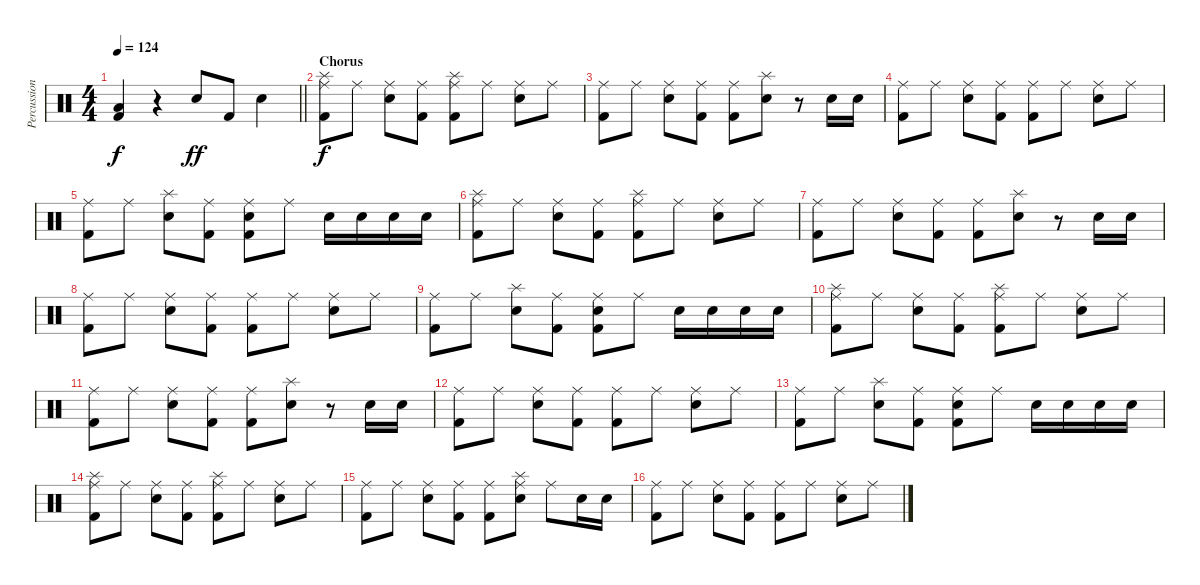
\track ("Percussioni" "Percussion") {instrument percussion}
\staff {score}
\articulation defaults
\ts (4 4)
\tempo 124
\clef neutral
\barLineRight lightlight
\ks c
("Low Floor Tom (hit)" "Kick (hit) 2").4{dy f} r.4 "Snare (hit) 2".8{dy ff} "Kick (hit) 2".8 "Snare (hit) 2".4 |
\section ("" "Chorus")
("Ride (middle)" "Splash (hit)" "Kick (hit) 2").8{dy f} "Ride (middle)".8 ("Ride (middle)" "Snare (hit) 2").8 ("Ride (middle)" "Kick (hit) 2").8 ("Ride (middle)" "Splash (hit)" "Kick (hit) 2").8 "Ride (middle)".8 ("Ride (middle)" "Snare (hit) 2").8 "Ride (middle)".8 |
("Ride (middle)" "Kick (hit) 2").8 "Ride (middle)".8 ("Ride (middle)" "Snare (hit) 2").8 ("Ride (middle)" "Kick (hit) 2").8 ("Ride (middle)" "Kick (hit) 2").8 ("Splash (hit)" "Snare (hit) 2").8 r.8 "Snare (hit) 2".16 "Snare (hit) 2".16 |
("Ride (middle)" "Kick (hit) 2").8 "Ride (middle)".8 ("Ride (middle)" "Snare (hit) 2").8 ("Ride (middle)" "Kick (hit) 2").8 ("Ride (middle)" "Kick (hit) 2").8 "Ride (middle)".8 ("Ride (middle)" "Snare (hit) 2").8 "Ride (middle)".8 |
("Ride (middle)" "Kick (hit) 2").8 "Ride (middle)".8 ("Splash (hit)" "Snare (hit) 2").8 ("Ride (middle)" "Kick (hit) 2").8 ("Ride (middle)" "Snare (hit) 2" "Kick (hit) 2").8 "Ride (middle)".8 "Snare (hit) 2".16 "Snare (hit) 2".16 "Snare (hit) 2".16 "Snare (hit) 2".16 |
("Ride (middle)" "Splash (hit)" "Kick (hit) 2").8 "Ride (middle)".8 ("Ride (middle)" "Snare (hit) 2").8 ("Ride (middle)" "Kick (hit) 2").8 ("Ride (middle)" "Splash (hit)" "Kick (hit) 2").8 "Ride (middle)".8 ("Ride (middle)" "Snare (hit) 2").8 "Ride (middle)".8 |
("Ride (middle)" "Kick (hit) 2").8 "Ride (middle)".8 ("Ride (middle)" "Snare (hit) 2").8 ("Ride (middle)" "Kick (hit) 2").8 ("Ride (middle)" "Kick (hit) 2").8 ("Splash (hit)" "Snare (hit) 2").8 r.8 "Snare (hit) 2".16 "Snare (hit) 2".16 |
("Ride (middle)" "Kick (hit) 2").8 "Ride (middle)".8 ("Ride (middle)" "Snare (hit) 2").8 ("Ride (middle)" "Kick (hit) 2").8 ("Ride (middle)" "Kick (hit) 2").8 "Ride (middle)".8 ("Ride (middle)" "Snare (hit) 2").8 "Ride (middle)".8 |
("Ride (middle)" "Kick (hit) 2").8 "Ride (middle)".8 ("Splash (hit)" "Snare (hit) 2").8 ("Ride (middle)" "Kick (hit) 2").8 ("Ride (middle)" "Snare (hit) 2" "Kick (hit) 2").8 "Ride (middle)".8 "Snare (hit) 2".16 "Snare (hit) 2".16 "Snare (hit) 2".16 "Snare (hit) 2".16 |
("Ride (middle)" "Splash (hit)" "Kick (hit) 2").8 "Ride (middle)".8 ("Ride (middle)" "Snare (hit) 2").8 ("Ride (middle)" "Kick (hit) 2").8 ("Ride (middle)" "Splash (hit)" "Kick (hit) 2").8 "Ride (middle)".8 ("Ride (middle)" "Snare (hit) 2").8 "Ride (middle)".8 |
("Ride (middle)" "Kick (hit) 2").8 "Ride (middle)".8 ("Ride (middle)" "Snare (hit) 2").8 ("Ride (middle)" "Kick (hit) 2").8 ("Ride (middle)" "Kick (hit) 2").8 ("Splash (hit)" "Snare (hit) 2").8 r.8 "Snare (hit) 2".16 "Snare (hit) 2".16 |
("Ride (middle)" "Kick (hit) 2").8 "Ride (middle)".8 ("Ride (middle)" "Snare (hit) 2").8 ("Ride (middle)" "Kick (hit) 2").8 ("Ride (middle)" "Kick (hit) 2").8 "Ride (middle)".8 ("Ride (middle)" "Snare (hit) 2").8 "Ride (middle)".8 |
("Ride (middle)" "Kick (hit) 2").8 "Ride (middle)".8 ("Splash (hit)" "Snare (hit) 2").8 ("Ride (middle)" "Kick (hit) 2").8 ("Ride (middle)" "Snare (hit) 2" "Kick (hit) 2").8 "Ride (middle)".8 "Snare (hit) 2".16 "Snare (hit) 2".16 "Snare (hit) 2".16 "Snare (hit) 2".16 |
("Ride (middle)" "Splash (hit)" "Kick (hit) 2").8 "Ride (middle)".8 ("Ride (middle)" "Snare (hit) 2").8 ("Ride (middle)" "Kick (hit) 2").8 ("Ride (middle)" "Splash (hit)" "Kick (hit) 2").8 "Ride (middle)".8 ("Ride (middle)" "Snare (hit) 2").8 "Ride (middle)".8 |
("Ride (middle)" "Kick (hit) 2").8 "Ride (middle)".8 ("Ride (middle)" "Snare (hit) 2").8 ("Ride (middle)" "Kick (hit) 2").8 ("Ride (middle)" "Kick (hit) 2").8 ("Ride (middle)" "Splash (hit)" "Snare (hit) 2").8 "Ride (middle)".8 "Snare (hit) 2".16 "Snare (hit) 2".16 |
("Ride (middle)" "Kick (hit) 2").8 "Ride (middle)".8 ("Ride (middle)" "Snare (hit) 2").8 ("Ride (middle)" "Kick (hit) 2").8 ("Ride (middle)" "Kick (hit) 2").8 "Ride (middle)".8 ("Ride (middle)" "Snare (hit) 2").8 "Ride (middle)".8
